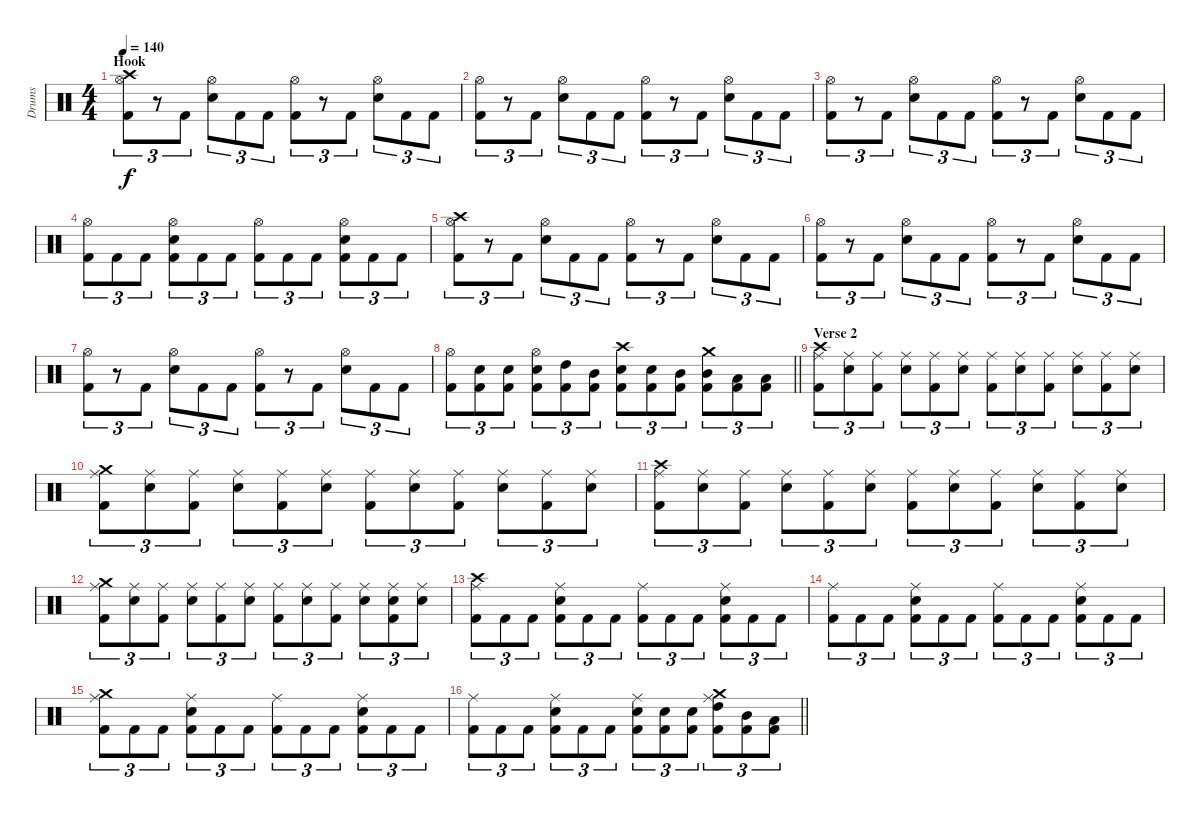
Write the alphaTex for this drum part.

\track ("Drums" "Drums") {instrument percussion}
\staff {score}
\articulation defaults
\ts (4 4)
\section ("" "Hook")
\tempo 140
\clef neutral
\ks c
("Crash high (hit)" "Hi-Hat (open)" "Kick (hit) 2").8{tu (3 2) dy f} r.8{tu (3 2)} "Kick (hit) 2".8{tu (3 2)} ("Hi-Hat (open)" "Snare (hit) 2").8{tu (3 2)} "Kick (hit) 2".8{tu (3 2)} "Kick (hit) 2".8{tu (3 2)} ("Hi-Hat (open)" "Kick (hit) 2").8{tu (3 2)} r.8{tu (3 2)} "Kick (hit) 2".8{tu (3 2)} ("Hi-Hat (open)" "Snare (hit) 2").8{tu (3 2)} "Kick (hit) 2".8{tu (3 2)} "Kick (hit) 2".8{tu (3 2)} |
("Hi-Hat (open)" "Kick (hit) 2").8{tu (3 2)} r.8{tu (3 2)} "Kick (hit) 2".8{tu (3 2)} ("Hi-Hat (open)" "Snare (hit) 2").8{tu (3 2)} "Kick (hit) 2".8{tu (3 2)} "Kick (hit) 2".8{tu (3 2)} ("Hi-Hat (open)" "Kick (hit) 2").8{tu (3 2)} r.8{tu (3 2)} "Kick (hit) 2".8{tu (3 2)} ("Hi-Hat (open)" "Snare (hit) 2").8{tu (3 2)} "Kick (hit) 2".8{tu (3 2)} "Kick (hit) 2".8{tu (3 2)} |
("Hi-Hat (open)" "Kick (hit) 2").8{tu (3 2)} r.8{tu (3 2)} "Kick (hit) 2".8{tu (3 2)} ("Hi-Hat (open)" "Snare (hit) 2").8{tu (3 2)} "Kick (hit) 2".8{tu (3 2)} "Kick (hit) 2".8{tu (3 2)} ("Hi-Hat (open)" "Kick (hit) 2").8{tu (3 2)} r.8{tu (3 2)} "Kick (hit) 2".8{tu (3 2)} ("Hi-Hat (open)" "Snare (hit) 2").8{tu (3 2)} "Kick (hit) 2".8{tu (3 2)} "Kick (hit) 2".8{tu (3 2)} |
("Hi-Hat (open)" "Kick (hit) 2").8{tu (3 2)} "Kick (hit) 2".8{tu (3 2)} "Kick (hit) 2".8{tu (3 2)} ("Hi-Hat (open)" "Snare (hit) 2" "Kick (hit) 2").8{tu (3 2)} "Kick (hit) 2".8{tu (3 2)} "Kick (hit) 2".8{tu (3 2)} ("Hi-Hat (open)" "Kick (hit) 2").8{tu (3 2)} "Kick (hit) 2".8{tu (3 2)} "Kick (hit) 2".8{tu (3 2)} ("Hi-Hat (open)" "Snare (hit) 2" "Kick (hit) 2").8{tu (3 2)} "Kick (hit) 2".8{tu (3 2)} "Kick (hit) 2".8{tu (3 2)} |
("Crash high (hit)" "Hi-Hat (open)" "Kick (hit) 2").8{tu (3 2)} r.8{tu (3 2)} "Kick (hit) 2".8{tu (3 2)} ("Hi-Hat (open)" "Snare (hit) 2").8{tu (3 2)} "Kick (hit) 2".8{tu (3 2)} "Kick (hit) 2".8{tu (3 2)} ("Hi-Hat (open)" "Kick (hit) 2").8{tu (3 2)} r.8{tu (3 2)} "Kick (hit) 2".8{tu (3 2)} ("Hi-Hat (open)" "Snare (hit) 2").8{tu (3 2)} "Kick (hit) 2".8{tu (3 2)} "Kick (hit) 2".8{tu (3 2)} |
("Hi-Hat (open)" "Kick (hit) 2").8{tu (3 2)} r.8{tu (3 2)} "Kick (hit) 2".8{tu (3 2)} ("Hi-Hat (open)" "Snare (hit) 2").8{tu (3 2)} "Kick (hit) 2".8{tu (3 2)} "Kick (hit) 2".8{tu (3 2)} ("Hi-Hat (open)" "Kick (hit) 2").8{tu (3 2)} r.8{tu (3 2)} "Kick (hit) 2".8{tu (3 2)} ("Hi-Hat (open)" "Snare (hit) 2").8{tu (3 2)} "Kick (hit) 2".8{tu (3 2)} "Kick (hit) 2".8{tu (3 2)} |
("Hi-Hat (open)" "Kick (hit) 2").8{tu (3 2)} r.8{tu (3 2)} "Kick (hit) 2".8{tu (3 2)} ("Hi-Hat (open)" "Snare (hit) 2").8{tu (3 2)} "Kick (hit) 2".8{tu (3 2)} "Kick (hit) 2".8{tu (3 2)} ("Hi-Hat (open)" "Kick (hit) 2").8{tu (3 2)} r.8{tu (3 2)} "Kick (hit) 2".8{tu (3 2)} ("Hi-Hat (open)" "Snare (hit) 2").8{tu (3 2)} "Kick (hit) 2".8{tu (3 2)} "Kick (hit) 2".8{tu (3 2)} |
\barLineRight lightlight
("Hi-Hat (open)" "Kick (hit) 2").8{tu (3 2)} ("Snare (hit) 2" "Kick (hit) 2").8{tu (3 2)} ("Snare (hit) 2" "Kick (hit) 2").8{tu (3 2)} ("Hi-Hat (open)" "Snare (hit) 2" "Kick (hit) 2").8{tu (3 2)} ("High Tom (hit)" "Kick (hit) 2").8{tu (3 2)} ("Mid Tom (hit)" "Kick (hit) 2").8{tu (3 2)} ("Crash high (hit)" "Snare (hit) 2" "Kick (hit) 2").8{tu (3 2)} ("Snare (hit) 2" "Kick (hit) 2").8{tu (3 2)} ("Mid Tom (hit)" "Kick (hit) 2").8{tu (3 2)} ("Crash medium (hit)" "Mid Tom (hit)" "Kick (hit) 2").8{tu (3 2)} ("Low Tom (hit)" "Kick (hit) 2").8{tu (3 2)} ("Low Tom (hit)" "Kick (hit) 2").8{tu (3 2)} |
\section ("" "Verse 2")
("Crash high (hit)" "Ride (middle)" "Kick (hit) 2").8{tu (3 2)} ("Ride (middle)" "Snare (hit) 2").8{tu (3 2)} ("Ride (middle)" "Kick (hit) 2").8{tu (3 2)} ("Ride (middle)" "Snare (hit) 2").8{tu (3 2)} ("Ride (middle)" "Kick (hit) 2").8{tu (3 2)} ("Ride (middle)" "Snare (hit) 2").8{tu (3 2)} ("Ride (middle)" "Kick (hit) 2").8{tu (3 2)} ("Ride (middle)" "Snare (hit) 2").8{tu (3 2)} ("Ride (middle)" "Kick (hit) 2").8{tu (3 2)} ("Ride (middle)" "Snare (hit) 2").8{tu (3 2)} ("Ride (middle)" "Kick (hit) 2").8{tu (3 2)} ("Ride (middle)" "Snare (hit) 2").8{tu (3 2)} |
("Crash medium (hit)" "Ride (middle)" "Kick (hit) 2").8{tu (3 2)} ("Ride (middle)" "Snare (hit) 2").8{tu (3 2)} ("Ride (middle)" "Kick (hit) 2").8{tu (3 2)} ("Ride (middle)" "Snare (hit) 2").8{tu (3 2)} ("Ride (middle)" "Kick (hit) 2").8{tu (3 2)} ("Ride (middle)" "Snare (hit) 2").8{tu (3 2)} ("Ride (middle)" "Kick (hit) 2").8{tu (3 2)} ("Ride (middle)" "Snare (hit) 2").8{tu (3 2)} ("Ride (middle)" "Kick (hit) 2").8{tu (3 2)} ("Ride (middle)" "Snare (hit) 2").8{tu (3 2)} ("Ride (middle)" "Kick (hit) 2").8{tu (3 2)} ("Ride (middle)" "Snare (hit) 2").8{tu (3 2)} |
("Crash high (hit)" "Ride (middle)" "Kick (hit) 2").8{tu (3 2)} ("Ride (middle)" "Snare (hit) 2").8{tu (3 2)} ("Ride (middle)" "Kick (hit) 2").8{tu (3 2)} ("Ride (middle)" "Snare (hit) 2").8{tu (3 2)} ("Ride (middle)" "Kick (hit) 2").8{tu (3 2)} ("Ride (middle)" "Snare (hit) 2").8{tu (3 2)} ("Ride (middle)" "Kick (hit) 2").8{tu (3 2)} ("Ride (middle)" "Snare (hit) 2").8{tu (3 2)} ("Ride (middle)" "Kick (hit) 2").8{tu (3 2)} ("Ride (middle)" "Snare (hit) 2").8{tu (3 2)} ("Ride (middle)" "Kick (hit) 2").8{tu (3 2)} ("Ride (middle)" "Snare (hit) 2").8{tu (3 2)} |
("Crash medium (hit)" "Ride (middle)" "Kick (hit) 2").8{tu (3 2)} ("Ride (middle)" "Snare (hit) 2").8{tu (3 2)} ("Ride (middle)" "Kick (hit) 2").8{tu (3 2)} ("Ride (middle)" "Snare (hit) 2").8{tu (3 2)} ("Ride (middle)" "Kick (hit) 2").8{tu (3 2)} ("Ride (middle)" "Snare (hit) 2").8{tu (3 2)} ("Ride (middle)" "Kick (hit) 2").8{tu (3 2)} ("Ride (middle)" "Snare (hit) 2").8{tu (3 2)} ("Ride (middle)" "Kick (hit) 2").8{tu (3 2)} ("Ride (middle)" "Snare (hit) 2").8{tu (3 2)} ("Ride (middle)" "Snare (hit) 2" "Kick (hit) 2").8{tu (3 2)} ("Ride (middle)" "Snare (hit) 2").8{tu (3 2)} |
("Crash high (hit)" "Ride (middle)" "Kick (hit) 2").8{tu (3 2)} "Kick (hit) 2".8{tu (3 2)} "Kick (hit) 2".8{tu (3 2)} ("Ride (middle)" "Snare (hit) 2" "Kick (hit) 2").8{tu (3 2)} "Kick (hit) 2".8{tu (3 2)} "Kick (hit) 2".8{tu (3 2)} ("Ride (middle)" "Kick (hit) 2").8{tu (3 2)} "Kick (hit) 2".8{tu (3 2)} "Kick (hit) 2".8{tu (3 2)} ("Ride (middle)" "Snare (hit) 2" "Kick (hit) 2").8{tu (3 2)} "Kick (hit) 2".8{tu (3 2)} "Kick (hit) 2".8{tu (3 2)} |
("Ride (middle)" "Kick (hit) 2").8{tu (3 2)} "Kick (hit) 2".8{tu (3 2)} "Kick (hit) 2".8{tu (3 2)} ("Ride (middle)" "Snare (hit) 2" "Kick (hit) 2").8{tu (3 2)} "Kick (hit) 2".8{tu (3 2)} "Kick (hit) 2".8{tu (3 2)} ("Ride (middle)" "Kick (hit) 2").8{tu (3 2)} "Kick (hit) 2".8{tu (3 2)} "Kick (hit) 2".8{tu (3 2)} ("Ride (middle)" "Snare (hit) 2" "Kick (hit) 2").8{tu (3 2)} "Kick (hit) 2".8{tu (3 2)} "Kick (hit) 2".8{tu (3 2)} |
("Crash medium (hit)" "Ride (middle)" "Kick (hit) 2").8{tu (3 2)} "Kick (hit) 2".8{tu (3 2)} "Kick (hit) 2".8{tu (3 2)} ("Ride (middle)" "Snare (hit) 2" "Kick (hit) 2").8{tu (3 2)} "Kick (hit) 2".8{tu (3 2)} "Kick (hit) 2".8{tu (3 2)} ("Ride (middle)" "Kick (hit) 2").8{tu (3 2)} "Kick (hit) 2".8{tu (3 2)} "Kick (hit) 2".8{tu (3 2)} ("Ride (middle)" "Snare (hit) 2" "Kick (hit) 2").8{tu (3 2)} "Kick (hit) 2".8{tu (3 2)} "Kick (hit) 2".8{tu (3 2)} |
\barLineRight lightlight
("Ride (middle)" "Kick (hit) 2").8{tu (3 2)} "Kick (hit) 2".8{tu (3 2)} "Kick (hit) 2".8{tu (3 2)} ("Ride (middle)" "Snare (hit) 2" "Kick (hit) 2").8{tu (3 2)} "Kick (hit) 2".8{tu (3 2)} "Kick (hit) 2".8{tu (3 2)} ("Ride (middle)" "Snare (hit) 2" "Kick (hit) 2").8{tu (3 2)} ("Snare (hit) 2" "Kick (hit) 2").8{tu (3 2)} ("Snare (hit) 2" "Kick (hit) 2").8{tu (3 2)} ("Crash medium (hit)" "Ride (middle)" "High Tom (hit)" "Kick (hit) 2").8{tu (3 2)} ("Mid Tom (hit)" "Kick (hit) 2").8{tu (3 2)} ("Low Tom (hit)" "Kick (hit) 2").8{tu (3 2)}
